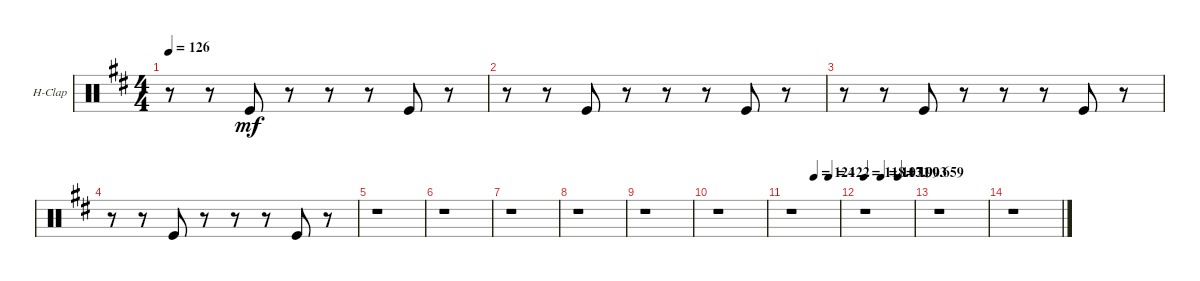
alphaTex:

\bracketExtendMode groupsimilarinstruments
\firstSystemTrackNameOrientation horizontal
\otherSystemsTrackNameOrientation horizontal
\track ("Hand Clap" "H-Clap") {instrument percussion}
\staff {score}
\articulation defaults
\ts (4 4)
\tempo 126
\clef neutral
\scale
0.333333
\ks d
r.8{dy mf} r.8 "Kick (hit)".8 r.8 r.8 r.8 "Kick (hit)".8 r.8 |
\scale
0.333333 r.8 r.8 "Kick (hit)".8 r.8 r.8 r.8 "Kick (hit)".8 r.8 |
\scale
0.333333 r.8 r.8 "Kick (hit)".8 r.8 r.8 r.8 "Kick (hit)".8 r.8 |
\scale
0.333333 r.8 r.8 "Kick (hit)".8 r.8 r.8 r.8 "Kick (hit)".8 r.8 |
\scale
0.333333 r.1 |
\scale
0.333333 r.1 |
\scale
0.633657
\scale
0.333333 r.1 |
\scale
0.366376
\scale
0.333333 r.1 |
\scale
0.333333 r.1 |
\scale
0.333333 r.1 |
\tempo (124 0.4875)
\tempo (122 0.79375)
\scale
0.333333 r.1 |
\tempo
118.071
\tempo (113.903 0.34375)
\tempo (109.659 0.69375)
\scale
0.333333 r.1 |
r.1 |
r.1
